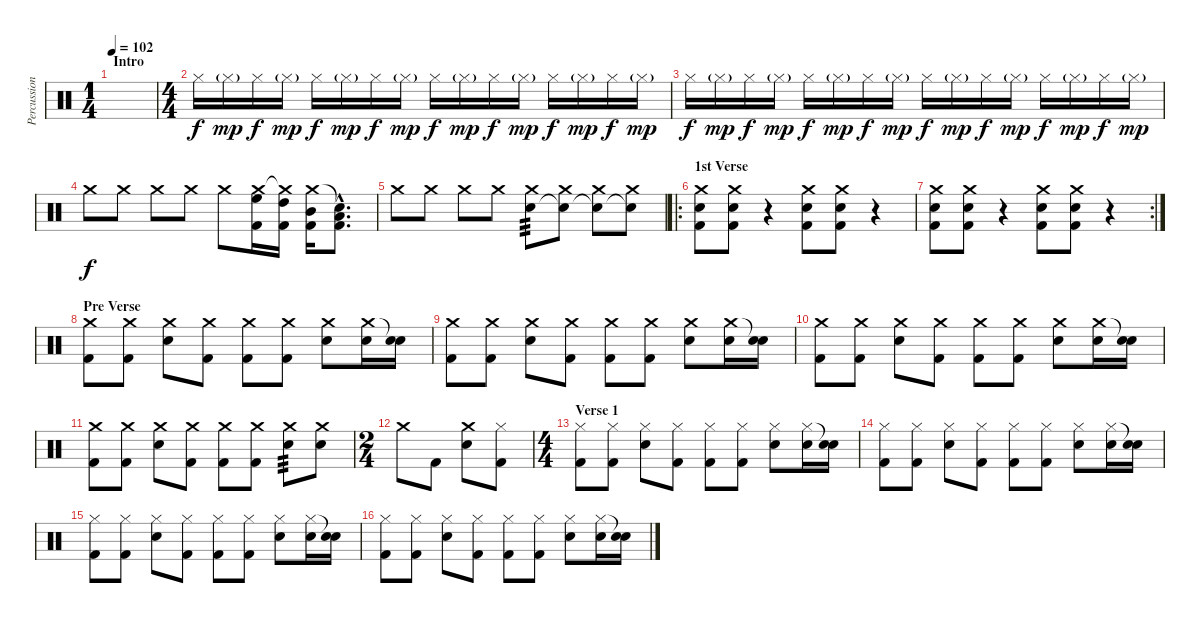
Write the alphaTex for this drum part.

\track ("Percussion" "Percussion") {instrument percussion}
\staff {score}
\articulation defaults
\ts (1 4)
\section ("" "Intro")
\tempo 102
\clef neutral
\ks c
|
\ts (4 4)
"Hi-Hat (closed)".16 "Hi-Hat (closed)"{g}.16{dy mp} "Hi-Hat (closed)".16{dy f} "Hi-Hat (closed)"{g}.16{dy mp} "Hi-Hat (closed)".16{dy f} "Hi-Hat (closed)"{g}.16{dy mp} "Hi-Hat (closed)".16{dy f} "Hi-Hat (closed)"{g}.16{dy mp} "Hi-Hat (closed)".16{dy f} "Hi-Hat (closed)"{g}.16{dy mp} "Hi-Hat (closed)".16{dy f} "Hi-Hat (closed)"{g}.16{dy mp} "Hi-Hat (closed)".16{dy f} "Hi-Hat (closed)"{g}.16{dy mp} "Hi-Hat (closed)".16{dy f} "Hi-Hat (closed)"{g}.16{dy mp} |
"Hi-Hat (closed)".16{dy f} "Hi-Hat (closed)"{g}.16{dy mp} "Hi-Hat (closed)".16{dy f} "Hi-Hat (closed)"{g}.16{dy mp} "Hi-Hat (closed)".16{dy f} "Hi-Hat (closed)"{g}.16{dy mp} "Hi-Hat (closed)".16{dy f} "Hi-Hat (closed)"{g}.16{dy mp} "Hi-Hat (closed)".16{dy f} "Hi-Hat (closed)"{g}.16{dy mp} "Hi-Hat (closed)".16{dy f} "Hi-Hat (closed)"{g}.16{dy mp} "Hi-Hat (closed)".16{dy f} "Hi-Hat (closed)"{g}.16{dy mp} "Hi-Hat (closed)".16{dy f} "Hi-Hat (closed)"{g}.16{dy mp} |
"Crash medium (hit)".8{dy f} "Crash medium (hit)".8 "Crash medium (hit)".8 "Crash medium (hit)".8 "Crash medium (hit)".8 ("Crash medium (hit)" "High Floor Tom (hit)" "Kick (hit) 2").16 ("Crash medium (hit)"{t} "High Tom (hit)" "Kick (hit) 2").16 ("Crash medium (hit)" "Mid Tom (hit)" "Kick (hit) 2").16 ("Snare (hit)"{hac t} "Low Tom (hit)"{tr (45 16) hac} "Kick (hit) 2"{hac}).8{d} |
"Crash medium (hit)".8 "Crash medium (hit)".8 "Crash medium (hit)".8 "Crash medium (hit)".8 ("Crash medium (hit)" "Snare (hit) 2").8{tp 3} ("Crash medium (hit)" "Snare (hit)"{t}).8 ("Crash medium (hit)" "Snare (hit)"{t}).8 ("Crash medium (hit)" "Snare (hit)"{t}).8 |
\ro
\section ("" "1st Verse")
("Crash medium (hit)" "Snare (hit) 2" "Kick (hit) 2").8 ("Crash medium (hit)" "Snare (hit) 2" "Kick (hit) 2").8 r.4 ("Crash medium (hit)" "Snare (hit) 2" "Kick (hit) 2").8 ("Crash medium (hit)" "Snare (hit) 2" "Kick (hit) 2").8 r.4 |
\rc 2
("Crash medium (hit)" "Snare (hit) 2" "Kick (hit) 2").8 ("Crash medium (hit)" "Snare (hit) 2" "Kick (hit) 2").8 r.4 ("Crash medium (hit)" "Snare (hit) 2" "Kick (hit) 2").8 ("Crash medium (hit)" "Snare (hit) 2" "Kick (hit) 2").8 r.4 |
\section ("" "Pre Verse")
("Crash medium (hit)" "Kick (hit) 2").8 ("Crash medium (hit)" "Kick (hit) 2").8 ("Crash medium (hit)" "Snare (hit) 2").8 ("Crash medium (hit)" "Kick (hit) 2"{tr (36 16)}).8 ("Crash medium (hit)" "Kick (hit) 2").8 ("Crash medium (hit)" "Kick (hit) 2").8 ("Crash medium (hit)" "Snare (hit) 2").8 ("Crash medium (hit)" "Snare (hit) 2").16 ("Snare (hit)"{t} "Snare (hit) 2").16 |
("Crash medium (hit)" "Kick (hit) 2").8 ("Crash medium (hit)" "Kick (hit) 2").8 ("Crash medium (hit)" "Snare (hit) 2").8 ("Crash medium (hit)" "Kick (hit) 2"{tr (36 16)}).8 ("Crash medium (hit)" "Kick (hit) 2").8 ("Crash medium (hit)" "Kick (hit) 2").8 ("Crash medium (hit)" "Snare (hit) 2").8 ("Crash medium (hit)" "Snare (hit) 2").16 ("Snare (hit)"{t} "Snare (hit) 2").16 |
("Crash medium (hit)" "Kick (hit) 2").8 ("Crash medium (hit)" "Kick (hit) 2").8 ("Crash medium (hit)" "Snare (hit) 2").8 ("Crash medium (hit)" "Kick (hit) 2"{tr (36 16)}).8 ("Crash medium (hit)" "Kick (hit) 2").8 ("Crash medium (hit)" "Kick (hit) 2").8 ("Crash medium (hit)" "Snare (hit) 2").8 ("Crash medium (hit)" "Snare (hit) 2").16 ("Snare (hit)"{t} "Snare (hit) 2").16 |
("Crash medium (hit)" "Kick (hit) 2").8 ("Crash medium (hit)" "Kick (hit) 2").8 ("Crash medium (hit)" "Snare (hit) 2").8 ("Crash medium (hit)" "Kick (hit) 2"{tr (36 16)}).8 ("Crash medium (hit)" "Kick (hit) 2").8 ("Crash medium (hit)" "Kick (hit) 2").8 ("Crash medium (hit)" "Snare (hit) 2").8{tp 3} ("Crash medium (hit)" "Snare (hit) 2"{tr (38 16)}).8 |
\ts (2 4)
"Crash medium (hit)".8 "Kick (hit) 2".8 ("Crash medium (hit)" "Snare (hit) 2").8 ("Hi-Hat (closed)" "Kick (hit) 2"{tr (36 16)}).8 |
\ts (4 4)
\section ("" "Verse 1")
("Hi-Hat (closed)" "Kick (hit) 2").8 ("Hi-Hat (closed)" "Kick (hit) 2").8 ("Hi-Hat (closed)" "Snare (hit) 2").8 ("Hi-Hat (closed)" "Kick (hit) 2"{tr (36 16)}).8 ("Hi-Hat (closed)" "Kick (hit) 2").8 ("Hi-Hat (closed)" "Kick (hit) 2").8 ("Hi-Hat (closed)" "Snare (hit) 2").8 ("Hi-Hat (closed)" "Snare (hit) 2").16 ("Snare (hit)"{t} "Snare (hit) 2").16 |
("Hi-Hat (closed)" "Kick (hit) 2").8 ("Hi-Hat (closed)" "Kick (hit) 2").8 ("Hi-Hat (closed)" "Snare (hit) 2").8 ("Hi-Hat (closed)" "Kick (hit) 2"{tr (36 16)}).8 ("Hi-Hat (closed)" "Kick (hit) 2").8 ("Hi-Hat (closed)" "Kick (hit) 2").8 ("Hi-Hat (closed)" "Snare (hit) 2").8 ("Hi-Hat (closed)" "Snare (hit) 2").16 ("Snare (hit)"{t} "Snare (hit) 2").16 |
("Hi-Hat (closed)" "Kick (hit) 2").8 ("Hi-Hat (closed)" "Kick (hit) 2").8 ("Hi-Hat (closed)" "Snare (hit) 2").8 ("Hi-Hat (closed)" "Kick (hit) 2"{tr (36 16)}).8 ("Hi-Hat (closed)" "Kick (hit) 2").8 ("Hi-Hat (closed)" "Kick (hit) 2").8 ("Hi-Hat (closed)" "Snare (hit) 2").8 ("Hi-Hat (closed)" "Snare (hit) 2").16 ("Snare (hit)"{t} "Snare (hit) 2").16 |
("Hi-Hat (closed)" "Kick (hit) 2").8 ("Hi-Hat (closed)" "Kick (hit) 2").8 ("Hi-Hat (closed)" "Snare (hit) 2").8 ("Hi-Hat (closed)" "Kick (hit) 2"{tr (36 16)}).8 ("Hi-Hat (closed)" "Kick (hit) 2").8 ("Hi-Hat (closed)" "Kick (hit) 2").8 ("Hi-Hat (closed)" "Snare (hit) 2").8 ("Hi-Hat (closed)" "Snare (hit) 2").16 ("Snare (hit)"{t} "Snare (hit) 2").16
